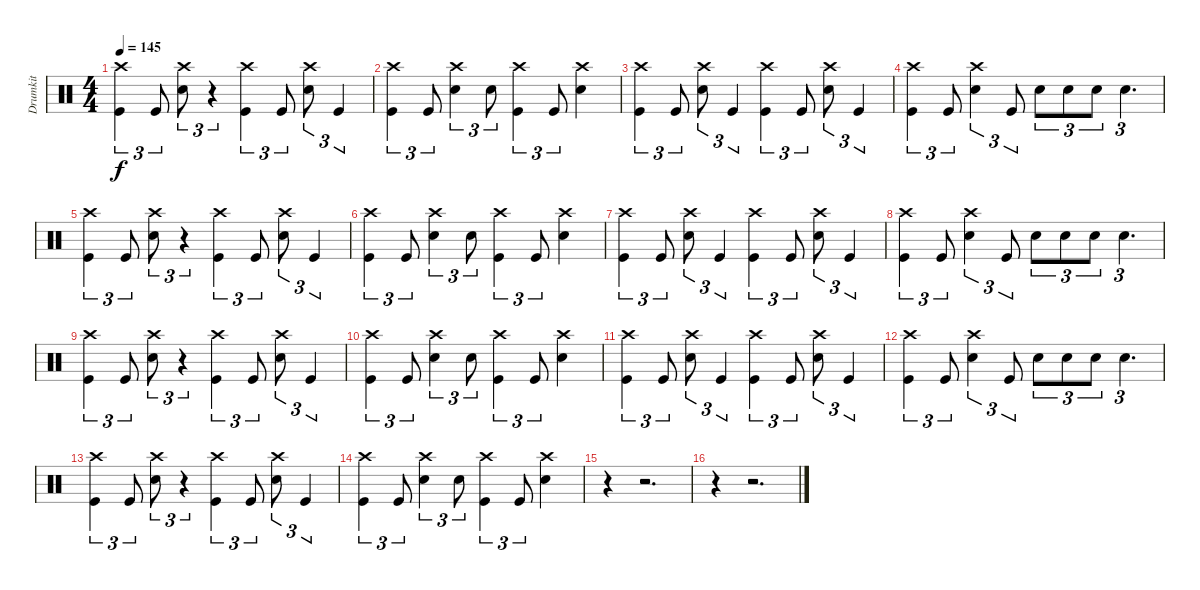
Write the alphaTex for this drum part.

\track ("Drumkit" "Drumkit") {instrument percussion}
\staff {score}
\articulation defaults
\ts (4 4)
\tempo 145
\clef neutral
\ks c
("Crash high (hit)" "Kick (hit)").4{tu (3 2) dy f} "Kick (hit)".8{tu (3 2)} ("Crash high (hit)" "Snare (hit) 2").8{tu (3 2)} r.4{tu (3 2)} ("Crash high (hit)" "Kick (hit)").4{tu (3 2)} "Kick (hit)".8{tu (3 2)} ("Crash high (hit)" "Snare (hit) 2").8{tu (3 2)} "Kick (hit)".4{tu (3 2)} |
("Crash high (hit)" "Kick (hit)").4{tu (3 2)} "Kick (hit)".8{tu (3 2)} ("Crash high (hit)" "Snare (hit) 2").4{tu (3 2)} "Snare (hit) 2".8{tu (3 2)} ("Crash high (hit)" "Kick (hit)").4{tu (3 2)} "Kick (hit)".8{tu (3 2)} ("Crash high (hit)" "Snare (hit) 2").4 |
("Crash high (hit)" "Kick (hit)").4{tu (3 2)} "Kick (hit)".8{tu (3 2)} ("Crash high (hit)" "Snare (hit) 2").8{tu (3 2)} "Kick (hit)".4{tu (3 2)} ("Crash high (hit)" "Kick (hit)").4{tu (3 2)} "Kick (hit)".8{tu (3 2)} ("Crash high (hit)" "Snare (hit) 2").8{tu (3 2)} "Kick (hit)".4{tu (3 2)} |
("Crash high (hit)" "Kick (hit)").4{tu (3 2)} "Kick (hit)".8{tu (3 2)} ("Crash high (hit)" "Snare (hit) 2").4{tu (3 2)} "Kick (hit)".8{tu (3 2)} "Snare (hit) 2".8{tu (3 2)} "Snare (hit) 2".8{tu (3 2)} "Snare (hit) 2".8{tu (3 2)} "Snare (hit) 2".4{d tu (3 2)} |
("Crash high (hit)" "Kick (hit)").4{tu (3 2)} "Kick (hit)".8{tu (3 2)} ("Crash high (hit)" "Snare (hit) 2").8{tu (3 2)} r.4{tu (3 2)} ("Crash high (hit)" "Kick (hit)").4{tu (3 2)} "Kick (hit)".8{tu (3 2)} ("Crash high (hit)" "Snare (hit) 2").8{tu (3 2)} "Kick (hit)".4{tu (3 2)} |
("Crash high (hit)" "Kick (hit)").4{tu (3 2)} "Kick (hit)".8{tu (3 2)} ("Crash high (hit)" "Snare (hit) 2").4{tu (3 2)} "Snare (hit) 2".8{tu (3 2)} ("Crash high (hit)" "Kick (hit)").4{tu (3 2)} "Kick (hit)".8{tu (3 2)} ("Crash high (hit)" "Snare (hit) 2").4 |
("Crash high (hit)" "Kick (hit)").4{tu (3 2)} "Kick (hit)".8{tu (3 2)} ("Crash high (hit)" "Snare (hit) 2").8{tu (3 2)} "Kick (hit)".4{tu (3 2)} ("Crash high (hit)" "Kick (hit)").4{tu (3 2)} "Kick (hit)".8{tu (3 2)} ("Crash high (hit)" "Snare (hit) 2").8{tu (3 2)} "Kick (hit)".4{tu (3 2)} |
("Crash high (hit)" "Kick (hit)").4{tu (3 2)} "Kick (hit)".8{tu (3 2)} ("Crash high (hit)" "Snare (hit) 2").4{tu (3 2)} "Kick (hit)".8{tu (3 2)} "Snare (hit) 2".8{tu (3 2)} "Snare (hit) 2".8{tu (3 2)} "Snare (hit) 2".8{tu (3 2)} "Snare (hit) 2".4{d tu (3 2)} |
("Crash high (hit)" "Kick (hit)").4{tu (3 2)} "Kick (hit)".8{tu (3 2)} ("Crash high (hit)" "Snare (hit) 2").8{tu (3 2)} r.4{tu (3 2)} ("Crash high (hit)" "Kick (hit)").4{tu (3 2)} "Kick (hit)".8{tu (3 2)} ("Crash high (hit)" "Snare (hit) 2").8{tu (3 2)} "Kick (hit)".4{tu (3 2)} |
("Crash high (hit)" "Kick (hit)").4{tu (3 2)} "Kick (hit)".8{tu (3 2)} ("Crash high (hit)" "Snare (hit) 2").4{tu (3 2)} "Snare (hit) 2".8{tu (3 2)} ("Crash high (hit)" "Kick (hit)").4{tu (3 2)} "Kick (hit)".8{tu (3 2)} ("Crash high (hit)" "Snare (hit) 2").4 |
("Crash high (hit)" "Kick (hit)").4{tu (3 2)} "Kick (hit)".8{tu (3 2)} ("Crash high (hit)" "Snare (hit) 2").8{tu (3 2)} "Kick (hit)".4{tu (3 2)} ("Crash high (hit)" "Kick (hit)").4{tu (3 2)} "Kick (hit)".8{tu (3 2)} ("Crash high (hit)" "Snare (hit) 2").8{tu (3 2)} "Kick (hit)".4{tu (3 2)} |
("Crash high (hit)" "Kick (hit)").4{tu (3 2)} "Kick (hit)".8{tu (3 2)} ("Crash high (hit)" "Snare (hit) 2").4{tu (3 2)} "Kick (hit)".8{tu (3 2)} "Snare (hit) 2".8{tu (3 2)} "Snare (hit) 2".8{tu (3 2)} "Snare (hit) 2".8{tu (3 2)} "Snare (hit) 2".4{d tu (3 2)} |
("Crash high (hit)" "Kick (hit)").4{tu (3 2)} "Kick (hit)".8{tu (3 2)} ("Crash high (hit)" "Snare (hit) 2").8{tu (3 2)} r.4{tu (3 2)} ("Crash high (hit)" "Kick (hit)").4{tu (3 2)} "Kick (hit)".8{tu (3 2)} ("Crash high (hit)" "Snare (hit) 2").8{tu (3 2)} "Kick (hit)".4{tu (3 2)} |
("Crash high (hit)" "Kick (hit)").4{tu (3 2)} "Kick (hit)".8{tu (3 2)} ("Crash high (hit)" "Snare (hit) 2").4{tu (3 2)} "Snare (hit) 2".8{tu (3 2)} ("Crash high (hit)" "Kick (hit)").4{tu (3 2)} "Kick (hit)".8{tu (3 2)} ("Crash high (hit)" "Snare (hit) 2").4 |
r.4 r.2{d} |
r.4 r.2{d}
